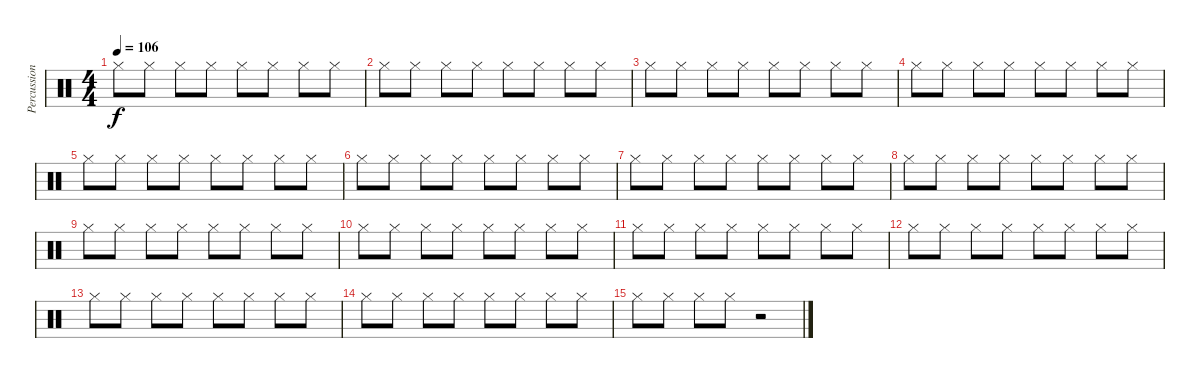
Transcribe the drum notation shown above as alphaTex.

\track ("Percussions" "Percussion") {instrument percussion}
\staff {score}
\articulation defaults
\ts (4 4)
\tempo 106
\clef neutral
\ks c "Hi-Hat (closed)".8{dy f} "Hi-Hat (closed)".8 "Hi-Hat (closed)".8 "Hi-Hat (closed)".8 "Hi-Hat (closed)".8 "Hi-Hat (closed)".8 "Hi-Hat (closed)".8 "Hi-Hat (closed)".8
|
"Hi-Hat (closed)".8 "Hi-Hat (closed)".8 "Hi-Hat (closed)".8 "Hi-Hat (closed)".8 "Hi-Hat (closed)".8 "Hi-Hat (closed)".8 "Hi-Hat (closed)".8 "Hi-Hat (closed)".8 |
"Hi-Hat (closed)".8 "Hi-Hat (closed)".8 "Hi-Hat (closed)".8 "Hi-Hat (closed)".8 "Hi-Hat (closed)".8 "Hi-Hat (closed)".8 "Hi-Hat (closed)".8 "Hi-Hat (closed)".8 |
"Hi-Hat (closed)".8 "Hi-Hat (closed)".8 "Hi-Hat (closed)".8 "Hi-Hat (closed)".8 "Hi-Hat (closed)".8 "Hi-Hat (closed)".8 "Hi-Hat (closed)".8 "Hi-Hat (closed)".8 |
"Hi-Hat (closed)".8 "Hi-Hat (closed)".8 "Hi-Hat (closed)".8 "Hi-Hat (closed)".8 "Hi-Hat (closed)".8 "Hi-Hat (closed)".8 "Hi-Hat (closed)".8 "Hi-Hat (closed)".8 |
"Hi-Hat (closed)".8 "Hi-Hat (closed)".8 "Hi-Hat (closed)".8 "Hi-Hat (closed)".8 "Hi-Hat (closed)".8 "Hi-Hat (closed)".8 "Hi-Hat (closed)".8 "Hi-Hat (closed)".8 |
"Hi-Hat (closed)".8 "Hi-Hat (closed)".8 "Hi-Hat (closed)".8 "Hi-Hat (closed)".8 "Hi-Hat (closed)".8 "Hi-Hat (closed)".8 "Hi-Hat (closed)".8 "Hi-Hat (closed)".8 |
"Hi-Hat (closed)".8 "Hi-Hat (closed)".8 "Hi-Hat (closed)".8 "Hi-Hat (closed)".8 "Hi-Hat (closed)".8 "Hi-Hat (closed)".8 "Hi-Hat (closed)".8 "Hi-Hat (closed)".8 |
"Hi-Hat (closed)".8 "Hi-Hat (closed)".8 "Hi-Hat (closed)".8 "Hi-Hat (closed)".8 "Hi-Hat (closed)".8 "Hi-Hat (closed)".8 "Hi-Hat (closed)".8 "Hi-Hat (closed)".8 |
"Hi-Hat (closed)".8 "Hi-Hat (closed)".8 "Hi-Hat (closed)".8 "Hi-Hat (closed)".8 "Hi-Hat (closed)".8 "Hi-Hat (closed)".8 "Hi-Hat (closed)".8 "Hi-Hat (closed)".8 |
"Hi-Hat (closed)".8 "Hi-Hat (closed)".8 "Hi-Hat (closed)".8 "Hi-Hat (closed)".8 "Hi-Hat (closed)".8 "Hi-Hat (closed)".8 "Hi-Hat (closed)".8 "Hi-Hat (closed)".8 |
"Hi-Hat (closed)".8 "Hi-Hat (closed)".8 "Hi-Hat (closed)".8 "Hi-Hat (closed)".8 "Hi-Hat (closed)".8 "Hi-Hat (closed)".8 "Hi-Hat (closed)".8 "Hi-Hat (closed)".8 |
"Hi-Hat (closed)".8 "Hi-Hat (closed)".8 "Hi-Hat (closed)".8 "Hi-Hat (closed)".8 "Hi-Hat (closed)".8 "Hi-Hat (closed)".8 "Hi-Hat (closed)".8 "Hi-Hat (closed)".8 |
"Hi-Hat (closed)".8 "Hi-Hat (closed)".8 "Hi-Hat (closed)".8 "Hi-Hat (closed)".8 "Hi-Hat (closed)".8 "Hi-Hat (closed)".8 "Hi-Hat (closed)".8 "Hi-Hat (closed)".8 |
"Hi-Hat (closed)".8 "Hi-Hat (closed)".8 "Hi-Hat (closed)".8 "Hi-Hat (closed)".8 r.2
